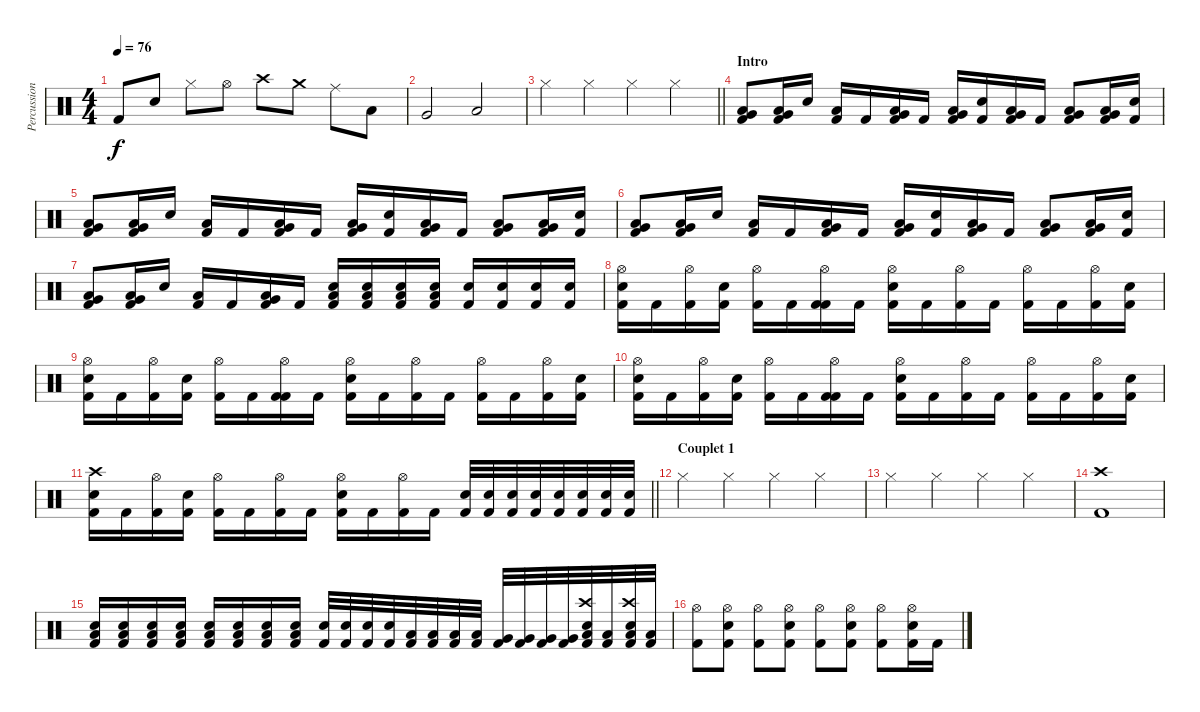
\track ("Percussion" "Percussion") {instrument percussion}
\staff {score}
\articulation defaults
\ts (4 4)
\tempo 76
\clef neutral
\ks c "Kick (hit) 2".8{dy f} "Snare (hit) 2".8 "Hi-Hat (closed)".8 "Hi-Hat (open)".8 "Crash high (hit)".8 "Crash medium (hit)".8 "Ride (middle)".8 "Low Tom (hit)".8
|
"Very Low Tom (hit)".2 "Low Floor Tom (hit)".2 |
\barLineRight lightlight "Hi-Hat (closed)".4 "Hi-Hat (closed)".4 "Hi-Hat (closed)".4 "Hi-Hat (closed)".4
|
\section ("" "Intro")
("Low Tom (hit)" "Very Low Tom (hit)" "Kick (hit) 2").8 ("Low Tom (hit)" "Very Low Tom (hit)" "Kick (hit) 2").16 "Snare (hit) 2".16 ("Kick (hit) 2" "Low Tom (hit)").16 "Kick (hit) 2".16 ("Low Tom (hit)" "Very Low Tom (hit)" "Kick (hit) 2").16 "Kick (hit) 2".16 ("Low Tom (hit)" "Very Low Tom (hit)" "Kick (hit) 2").16 ("Snare (hit) 2" "Kick (hit) 2").16 ("Kick (hit) 2" "Low Tom (hit)" "Very Low Tom (hit)").16 "Kick (hit) 2".16 ("Low Tom (hit)" "Very Low Tom (hit)" "Kick (hit) 2").8 ("Low Tom (hit)" "Very Low Tom (hit)" "Kick (hit) 2").16 ("Snare (hit) 2" "Kick (hit) 2").16 |
("Low Tom (hit)" "Very Low Tom (hit)" "Kick (hit) 2").8 ("Low Tom (hit)" "Very Low Tom (hit)" "Kick (hit) 2").16 "Snare (hit) 2".16 ("Kick (hit) 2" "Low Tom (hit)").16 "Kick (hit) 2".16 ("Low Tom (hit)" "Very Low Tom (hit)" "Kick (hit) 2").16 "Kick (hit) 2".16 ("Low Tom (hit)" "Very Low Tom (hit)" "Kick (hit) 2").16 ("Snare (hit) 2" "Kick (hit) 2").16 ("Kick (hit) 2" "Low Tom (hit)" "Very Low Tom (hit)").16 "Kick (hit) 2".16 ("Low Tom (hit)" "Very Low Tom (hit)" "Kick (hit) 2").8 ("Low Tom (hit)" "Very Low Tom (hit)" "Kick (hit) 2").16 ("Snare (hit) 2" "Kick (hit) 2").16 |
("Low Tom (hit)" "Very Low Tom (hit)" "Kick (hit) 2").8 ("Low Tom (hit)" "Very Low Tom (hit)" "Kick (hit) 2").16 "Snare (hit) 2".16 ("Kick (hit) 2" "Low Tom (hit)").16 "Kick (hit) 2".16 ("Low Tom (hit)" "Very Low Tom (hit)" "Kick (hit) 2").16 "Kick (hit) 2".16 ("Low Tom (hit)" "Very Low Tom (hit)" "Kick (hit) 2").16 ("Snare (hit) 2" "Kick (hit) 2").16 ("Kick (hit) 2" "Low Tom (hit)" "Very Low Tom (hit)").16 "Kick (hit) 2".16 ("Low Tom (hit)" "Very Low Tom (hit)" "Kick (hit) 2").8 ("Low Tom (hit)" "Very Low Tom (hit)" "Kick (hit) 2").16 ("Snare (hit) 2" "Kick (hit) 2").16 |
("Low Tom (hit)" "Very Low Tom (hit)" "Kick (hit) 2").8 ("Low Tom (hit)" "Very Low Tom (hit)" "Kick (hit) 2").16 "Snare (hit) 2".16 ("Kick (hit) 2" "Low Tom (hit)").16 "Kick (hit) 2".16 ("Low Tom (hit)" "Very Low Tom (hit)" "Kick (hit) 2").16 "Kick (hit) 2".16 ("Kick (hit) 2" "Low Tom (hit)" "Snare (hit) 2").16 ("Kick (hit) 2" "Low Tom (hit)" "Snare (hit) 2").16 ("Kick (hit) 2" "Low Tom (hit)" "Snare (hit) 2").16 ("Kick (hit) 2" "Low Tom (hit)" "Snare (hit) 2").16 ("Kick (hit) 2" "Snare (hit) 2").16 ("Kick (hit) 2" "Snare (hit) 2").16 ("Kick (hit) 2" "Snare (hit) 2").16 ("Kick (hit) 2" "Snare (hit) 2").16 |
("Hi-Hat (open)" "Kick (hit) 2" "Snare (hit) 2").16 "Kick (hit) 2".16 ("Hi-Hat (open)" "Kick (hit) 2").16 ("Snare (hit) 2" "Kick (hit) 2").16 ("Hi-Hat (open)" "Kick (hit) 2").16 "Kick (hit) 2".16 ("Hi-Hat (open)" "Kick (hit) 2" "Kick (hit) 2").16 "Kick (hit) 2".16 ("Hi-Hat (open)" "Snare (hit) 2" "Kick (hit) 2").16 "Kick (hit) 2".16 ("Hi-Hat (open)" "Kick (hit) 2").16 "Kick (hit) 2".16 ("Hi-Hat (open)" "Kick (hit) 2").16 "Kick (hit) 2".16 ("Hi-Hat (open)" "Kick (hit) 2").16 ("Snare (hit) 2" "Kick (hit) 2").16 |
("Hi-Hat (open)" "Kick (hit) 2" "Snare (hit) 2").16 "Kick (hit) 2".16 ("Hi-Hat (open)" "Kick (hit) 2").16 ("Snare (hit) 2" "Kick (hit) 2").16 ("Hi-Hat (open)" "Kick (hit) 2").16 "Kick (hit) 2".16 ("Hi-Hat (open)" "Kick (hit) 2" "Kick (hit) 2").16 "Kick (hit) 2".16 ("Hi-Hat (open)" "Snare (hit) 2" "Kick (hit) 2").16 "Kick (hit) 2".16 ("Hi-Hat (open)" "Kick (hit) 2").16 "Kick (hit) 2".16 ("Hi-Hat (open)" "Kick (hit) 2").16 "Kick (hit) 2".16 ("Hi-Hat (open)" "Kick (hit) 2").16 ("Snare (hit) 2" "Kick (hit) 2").16 |
("Hi-Hat (open)" "Kick (hit) 2" "Snare (hit) 2").16 "Kick (hit) 2".16 ("Hi-Hat (open)" "Kick (hit) 2").16 ("Snare (hit) 2" "Kick (hit) 2").16 ("Hi-Hat (open)" "Kick (hit) 2").16 "Kick (hit) 2".16 ("Hi-Hat (open)" "Kick (hit) 2" "Kick (hit) 2").16 "Kick (hit) 2".16 ("Hi-Hat (open)" "Snare (hit) 2" "Kick (hit) 2").16 "Kick (hit) 2".16 ("Hi-Hat (open)" "Kick (hit) 2").16 "Kick (hit) 2".16 ("Hi-Hat (open)" "Kick (hit) 2").16 "Kick (hit) 2".16 ("Hi-Hat (open)" "Kick (hit) 2").16 ("Snare (hit) 2" "Kick (hit) 2").16 |
\barLineRight lightlight
("Crash high (hit)" "Kick (hit) 2" "Snare (hit) 2").16 "Kick (hit) 2".16 ("Hi-Hat (open)" "Kick (hit) 2").16 ("Snare (hit) 2" "Kick (hit) 2").16 ("Hi-Hat (open)" "Kick (hit) 2").16 "Kick (hit) 2".16 ("Hi-Hat (open)" "Kick (hit) 2").16 "Kick (hit) 2".16 ("Hi-Hat (open)" "Snare (hit) 2" "Kick (hit) 2").16 "Kick (hit) 2".16 ("Hi-Hat (open)" "Kick (hit) 2").16 "Kick (hit) 2".16 ("Snare (hit) 2" "Kick (hit) 2").32 ("Kick (hit) 2" "Snare (hit) 2").32 ("Kick (hit) 2" "Snare (hit) 2").32 ("Kick (hit) 2" "Snare (hit) 2").32 ("Kick (hit) 2" "Snare (hit) 2").32 ("Kick (hit) 2" "Snare (hit) 2").32 ("Kick (hit) 2" "Snare (hit) 2").32 ("Kick (hit) 2" "Snare (hit) 2").32 |
\section ("" "Couplet 1")
"Hi-Hat (closed)".4 "Hi-Hat (closed)".4 "Hi-Hat (closed)".4 "Hi-Hat (closed)".4 |
"Hi-Hat (closed)".4 "Hi-Hat (closed)".4 "Hi-Hat (closed)".4 "Hi-Hat (closed)".4 |
("Crash high (hit)" "Kick (hit) 2").1 |
("Low Tom (hit)" "Snare (hit) 2" "Kick (hit) 2").16 ("Low Tom (hit)" "Snare (hit) 2" "Kick (hit) 2").16 ("Low Tom (hit)" "Snare (hit) 2" "Kick (hit) 2").16 ("Low Tom (hit)" "Snare (hit) 2" "Kick (hit) 2").16 ("Low Tom (hit)" "Snare (hit) 2" "Kick (hit) 2").16 ("Low Tom (hit)" "Snare (hit) 2" "Kick (hit) 2").16 ("Low Tom (hit)" "Snare (hit) 2" "Kick (hit) 2").16 ("Low Tom (hit)" "Snare (hit) 2" "Kick (hit) 2").16 ("Snare (hit) 2" "Kick (hit) 2").32 ("Snare (hit) 2" "Kick (hit) 2").32 ("Snare (hit) 2" "Kick (hit) 2").32 ("Snare (hit) 2" "Kick (hit) 2").32 ("Low Tom (hit)" "Kick (hit) 2").32 ("Low Tom (hit)" "Kick (hit) 2").32 ("Low Tom (hit)" "Kick (hit) 2").32 ("Low Tom (hit)" "Kick (hit) 2").32 ("Very Low Tom (hit)" "Kick (hit) 2").32 ("Very Low Tom (hit)" "Kick (hit) 2").32 ("Very Low Tom (hit)" "Kick (hit) 2").32 ("Very Low Tom (hit)" "Kick (hit) 2").32 ("Crash high (hit)" "Low Floor Tom (hit)" "Snare (hit) 2" "Kick (hit) 2").32 ("Low Floor Tom (hit)" "Kick (hit) 2").32 ("Crash high (hit)" "Low Floor Tom (hit)" "Snare (hit) 2" "Kick (hit) 2").32 ("Low Floor Tom (hit)" "Kick (hit) 2").32 |
("Hi-Hat (open)" "Kick (hit) 2").8 ("Hi-Hat (open)" "Snare (hit) 2" "Kick (hit) 2").8 ("Hi-Hat (open)" "Kick (hit) 2").8 ("Hi-Hat (open)" "Snare (hit) 2" "Kick (hit) 2").8 ("Hi-Hat (open)" "Kick (hit) 2").8 ("Hi-Hat (open)" "Snare (hit) 2" "Kick (hit) 2").8 ("Hi-Hat (open)" "Kick (hit) 2").8 ("Hi-Hat (open)" "Snare (hit) 2" "Kick (hit) 2").16 "Kick (hit) 2".16
